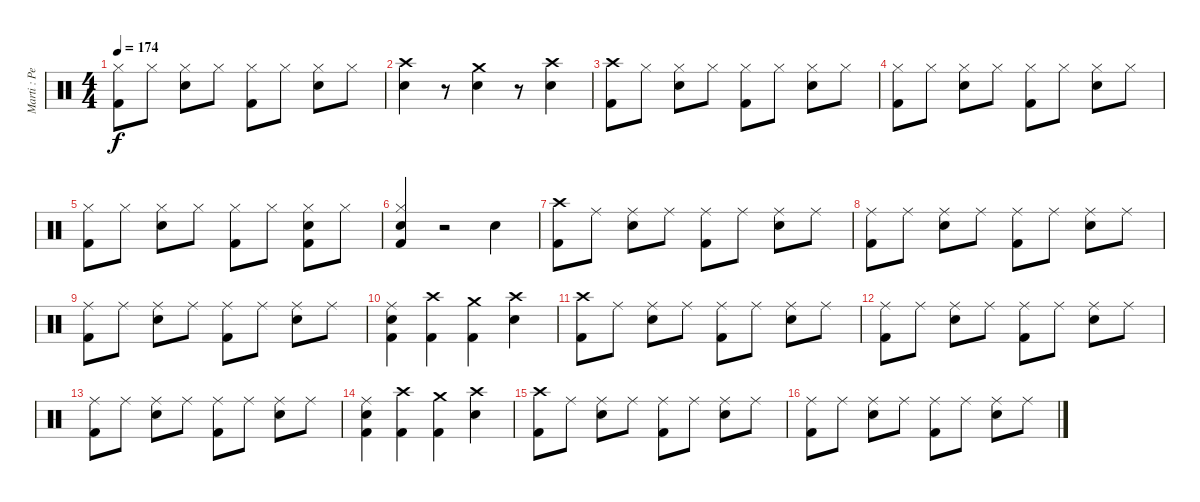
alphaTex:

\track ("Marti : Percussion" "Marti : Pe") {instrument percussion}
\staff {score}
\articulation defaults
\ts (4 4)
\tempo 174
\clef neutral
\ks c
("Kick (hit) 2" "Hi-Hat (closed)").8{dy f} "Hi-Hat (closed)".8 ("Electric Snare (hit)" "Hi-Hat (closed)").8 "Hi-Hat (closed)".8 ("Kick (hit) 2" "Hi-Hat (closed)").8 "Hi-Hat (closed)".8 ("Electric Snare (hit)" "Hi-Hat (closed)").8 "Hi-Hat (closed)".8 |
("Electric Snare (hit)" "Crash high (hit)").4 r.8 ("Electric Snare (hit)" "Crash medium (hit)").4 r.8 ("Electric Snare (hit)" "Crash high (hit)").4 |
("Kick (hit) 2" "Crash high (hit)").8 "Hi-Hat (closed)".8 ("Electric Snare (hit)" "Hi-Hat (closed)").8 "Hi-Hat (closed)".8 ("Kick (hit) 2" "Hi-Hat (closed)").8 "Hi-Hat (closed)".8 ("Electric Snare (hit)" "Hi-Hat (closed)").8 "Hi-Hat (closed)".8 |
("Kick (hit) 2" "Hi-Hat (closed)").8 "Hi-Hat (closed)".8 ("Electric Snare (hit)" "Hi-Hat (closed)").8 "Hi-Hat (closed)".8 ("Kick (hit) 2" "Hi-Hat (closed)").8 "Hi-Hat (closed)".8 ("Electric Snare (hit)" "Hi-Hat (closed)").8 "Hi-Hat (closed)".8 |
("Kick (hit) 2" "Hi-Hat (closed)").8 "Hi-Hat (closed)".8 ("Electric Snare (hit)" "Hi-Hat (closed)").8 "Hi-Hat (closed)".8 ("Kick (hit) 2" "Hi-Hat (closed)").8 "Hi-Hat (closed)".8 ("Kick (hit) 2" "Electric Snare (hit)" "Hi-Hat (closed)").8 "Hi-Hat (closed)".8 |
("Kick (hit) 2" "Electric Snare (hit)" "Hi-Hat (closed)").4 r.2 "Electric Snare (hit)".4 |
("Kick (hit) 2" "Crash high (hit)").8 "Ride (middle)".8 ("Electric Snare (hit)" "Ride (middle)").8 "Ride (middle)".8 ("Kick (hit) 2" "Ride (middle)").8 "Ride (middle)".8 ("Electric Snare (hit)" "Ride (middle)").8 "Ride (middle)".8 |
("Kick (hit) 2" "Ride (middle)").8 "Ride (middle)".8 ("Electric Snare (hit)" "Ride (middle)").8 "Ride (middle)".8 ("Kick (hit) 2" "Ride (middle)").8 "Ride (middle)".8 ("Electric Snare (hit)" "Ride (middle)").8 "Ride (middle)".8 |
("Kick (hit) 2" "Ride (middle)").8 "Ride (middle)".8 ("Electric Snare (hit)" "Ride (middle)").8 "Ride (middle)".8 ("Kick (hit) 2" "Ride (middle)").8 "Ride (middle)".8 ("Electric Snare (hit)" "Ride (middle)").8 "Ride (middle)".8 |
("Kick (hit) 2" "Electric Snare (hit)" "Ride (middle)").4 ("Kick (hit) 2" "Crash high (hit)").4 ("Kick (hit) 2" "Crash medium (hit)").4 ("Electric Snare (hit)" "Crash high (hit)").4 |
("Kick (hit) 2" "Crash high (hit)").8 "Ride (middle)".8 ("Electric Snare (hit)" "Ride (middle)").8 "Ride (middle)".8 ("Kick (hit) 2" "Ride (middle)").8 "Ride (middle)".8 ("Electric Snare (hit)" "Ride (middle)").8 "Ride (middle)".8 |
("Kick (hit) 2" "Ride (middle)").8 "Ride (middle)".8 ("Electric Snare (hit)" "Ride (middle)").8 "Ride (middle)".8 ("Kick (hit) 2" "Ride (middle)").8 "Ride (middle)".8 ("Electric Snare (hit)" "Ride (middle)").8 "Ride (middle)".8 |
("Kick (hit) 2" "Ride (middle)").8 "Ride (middle)".8 ("Electric Snare (hit)" "Ride (middle)").8 "Ride (middle)".8 ("Kick (hit) 2" "Ride (middle)").8 "Ride (middle)".8 ("Electric Snare (hit)" "Ride (middle)").8 "Ride (middle)".8 |
("Kick (hit) 2" "Electric Snare (hit)" "Ride (middle)").4 ("Kick (hit) 2" "Crash high (hit)").4 ("Kick (hit) 2" "Crash medium (hit)").4 ("Electric Snare (hit)" "Crash high (hit)").4 |
("Kick (hit) 2" "Crash high (hit)").8 "Ride (middle)".8 ("Electric Snare (hit)" "Ride (middle)").8 "Ride (middle)".8 ("Kick (hit) 2" "Ride (middle)").8 "Ride (middle)".8 ("Electric Snare (hit)" "Ride (middle)").8 "Ride (middle)".8 |
("Kick (hit) 2" "Ride (middle)").8 "Ride (middle)".8 ("Electric Snare (hit)" "Ride (middle)").8 "Ride (middle)".8 ("Kick (hit) 2" "Ride (middle)").8 "Ride (middle)".8 ("Electric Snare (hit)" "Ride (middle)").8 "Ride (middle)".8
